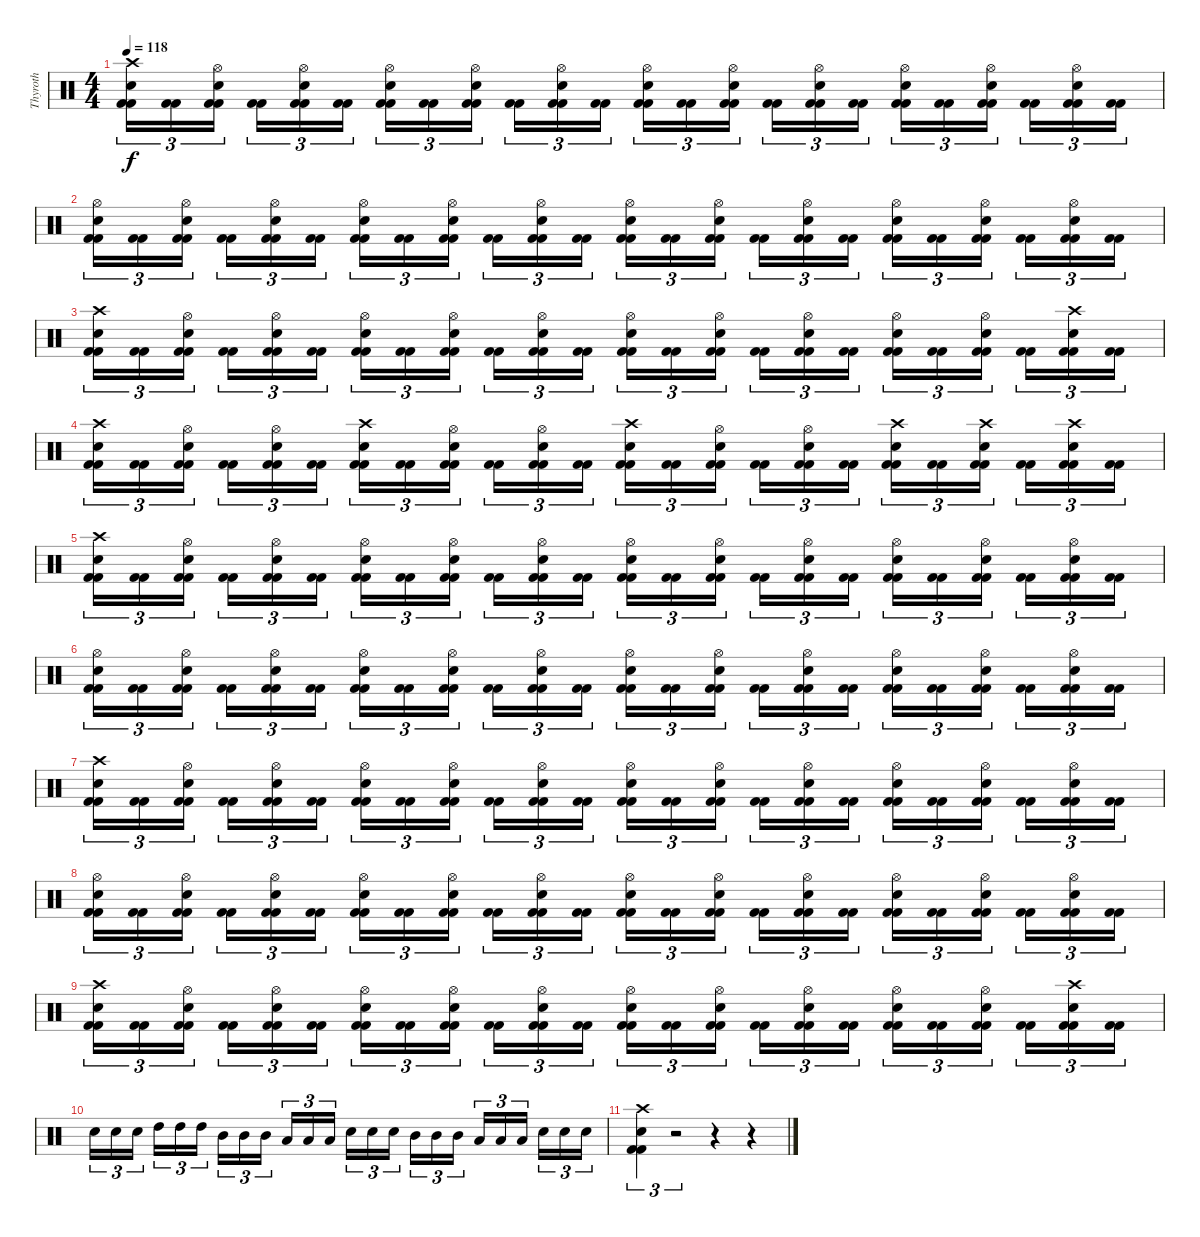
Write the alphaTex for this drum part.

\track ("Thyroth" "Thyroth") {instrument percussion}
\staff {score}
\articulation defaults
\ts (4 4)
\tempo 118
\clef neutral
\ks c
("Kick (hit) 2" "Kick (hit) 2" "Snare (hit) 2" "Crash high (hit)").16{tu (3 2) dy f} ("Kick (hit) 2" "Kick (hit) 2").16{tu (3 2)} ("Kick (hit) 2" "Kick (hit) 2" "Snare (hit) 2" "Hi-Hat (open)").16{tu (3 2)} ("Kick (hit) 2" "Kick (hit) 2").16{tu (3 2)} ("Kick (hit) 2" "Kick (hit) 2" "Snare (hit) 2" "Hi-Hat (open)").16{tu (3 2)} ("Kick (hit) 2" "Kick (hit) 2").16{tu (3 2)} ("Kick (hit) 2" "Kick (hit) 2" "Snare (hit) 2" "Hi-Hat (open)").16{tu (3 2)} ("Kick (hit) 2" "Kick (hit) 2").16{tu (3 2)} ("Kick (hit) 2" "Kick (hit) 2" "Snare (hit) 2" "Hi-Hat (open)").16{tu (3 2)} ("Kick (hit) 2" "Kick (hit) 2").16{tu (3 2)} ("Kick (hit) 2" "Kick (hit) 2" "Snare (hit) 2" "Hi-Hat (open)").16{tu (3 2)} ("Kick (hit) 2" "Kick (hit) 2").16{tu (3 2)} ("Kick (hit) 2" "Kick (hit) 2" "Snare (hit) 2" "Hi-Hat (open)").16{tu (3 2)} ("Kick (hit) 2" "Kick (hit) 2").16{tu (3 2)} ("Kick (hit) 2" "Kick (hit) 2" "Snare (hit) 2" "Hi-Hat (open)").16{tu (3 2)} ("Kick (hit) 2" "Kick (hit) 2").16{tu (3 2)} ("Kick (hit) 2" "Kick (hit) 2" "Snare (hit) 2" "Hi-Hat (open)").16{tu (3 2)} ("Kick (hit) 2" "Kick (hit) 2").16{tu (3 2)} ("Kick (hit) 2" "Kick (hit) 2" "Snare (hit) 2" "Hi-Hat (open)").16{tu (3 2)} ("Kick (hit) 2" "Kick (hit) 2").16{tu (3 2)} ("Kick (hit) 2" "Kick (hit) 2" "Snare (hit) 2" "Hi-Hat (open)").16{tu (3 2)} ("Kick (hit) 2" "Kick (hit) 2").16{tu (3 2)} ("Kick (hit) 2" "Kick (hit) 2" "Snare (hit) 2" "Hi-Hat (open)").16{tu (3 2)} ("Kick (hit) 2" "Kick (hit) 2").16{tu (3 2)} |
("Kick (hit) 2" "Kick (hit) 2" "Snare (hit) 2" "Hi-Hat (open)").16{tu (3 2)} ("Kick (hit) 2" "Kick (hit) 2").16{tu (3 2)} ("Kick (hit) 2" "Kick (hit) 2" "Snare (hit) 2" "Hi-Hat (open)").16{tu (3 2)} ("Kick (hit) 2" "Kick (hit) 2").16{tu (3 2)} ("Kick (hit) 2" "Kick (hit) 2" "Snare (hit) 2" "Hi-Hat (open)").16{tu (3 2)} ("Kick (hit) 2" "Kick (hit) 2").16{tu (3 2)} ("Kick (hit) 2" "Kick (hit) 2" "Snare (hit) 2" "Hi-Hat (open)").16{tu (3 2)} ("Kick (hit) 2" "Kick (hit) 2").16{tu (3 2)} ("Kick (hit) 2" "Kick (hit) 2" "Snare (hit) 2" "Hi-Hat (open)").16{tu (3 2)} ("Kick (hit) 2" "Kick (hit) 2").16{tu (3 2)} ("Kick (hit) 2" "Kick (hit) 2" "Snare (hit) 2" "Hi-Hat (open)").16{tu (3 2)} ("Kick (hit) 2" "Kick (hit) 2").16{tu (3 2)} ("Kick (hit) 2" "Kick (hit) 2" "Snare (hit) 2" "Hi-Hat (open)").16{tu (3 2)} ("Kick (hit) 2" "Kick (hit) 2").16{tu (3 2)} ("Kick (hit) 2" "Kick (hit) 2" "Snare (hit) 2" "Hi-Hat (open)").16{tu (3 2)} ("Kick (hit) 2" "Kick (hit) 2").16{tu (3 2)} ("Kick (hit) 2" "Kick (hit) 2" "Snare (hit) 2" "Hi-Hat (open)").16{tu (3 2)} ("Kick (hit) 2" "Kick (hit) 2").16{tu (3 2)} ("Kick (hit) 2" "Kick (hit) 2" "Snare (hit) 2" "Hi-Hat (open)").16{tu (3 2)} ("Kick (hit) 2" "Kick (hit) 2").16{tu (3 2)} ("Kick (hit) 2" "Kick (hit) 2" "Snare (hit) 2" "Hi-Hat (open)").16{tu (3 2)} ("Kick (hit) 2" "Kick (hit) 2").16{tu (3 2)} ("Kick (hit) 2" "Kick (hit) 2" "Snare (hit) 2" "Hi-Hat (open)").16{tu (3 2)} ("Kick (hit) 2" "Kick (hit) 2").16{tu (3 2)} |
("Kick (hit) 2" "Kick (hit) 2" "Snare (hit) 2" "Crash high (hit)").16{tu (3 2)} ("Kick (hit) 2" "Kick (hit) 2").16{tu (3 2)} ("Kick (hit) 2" "Kick (hit) 2" "Snare (hit) 2" "Hi-Hat (open)").16{tu (3 2)} ("Kick (hit) 2" "Kick (hit) 2").16{tu (3 2)} ("Kick (hit) 2" "Kick (hit) 2" "Snare (hit) 2" "Hi-Hat (open)").16{tu (3 2)} ("Kick (hit) 2" "Kick (hit) 2").16{tu (3 2)} ("Kick (hit) 2" "Kick (hit) 2" "Snare (hit) 2" "Hi-Hat (open)").16{tu (3 2)} ("Kick (hit) 2" "Kick (hit) 2").16{tu (3 2)} ("Kick (hit) 2" "Kick (hit) 2" "Snare (hit) 2" "Hi-Hat (open)").16{tu (3 2)} ("Kick (hit) 2" "Kick (hit) 2").16{tu (3 2)} ("Kick (hit) 2" "Kick (hit) 2" "Snare (hit) 2" "Hi-Hat (open)").16{tu (3 2)} ("Kick (hit) 2" "Kick (hit) 2").16{tu (3 2)} ("Kick (hit) 2" "Kick (hit) 2" "Snare (hit) 2" "Hi-Hat (open)").16{tu (3 2)} ("Kick (hit) 2" "Kick (hit) 2").16{tu (3 2)} ("Kick (hit) 2" "Kick (hit) 2" "Snare (hit) 2" "Hi-Hat (open)").16{tu (3 2)} ("Kick (hit) 2" "Kick (hit) 2").16{tu (3 2)} ("Kick (hit) 2" "Kick (hit) 2" "Snare (hit) 2" "Hi-Hat (open)").16{tu (3 2)} ("Kick (hit) 2" "Kick (hit) 2").16{tu (3 2)} ("Kick (hit) 2" "Kick (hit) 2" "Snare (hit) 2" "Hi-Hat (open)").16{tu (3 2)} ("Kick (hit) 2" "Kick (hit) 2").16{tu (3 2)} ("Kick (hit) 2" "Kick (hit) 2" "Snare (hit) 2" "Hi-Hat (open)").16{tu (3 2)} ("Kick (hit) 2" "Kick (hit) 2").16{tu (3 2)} ("Kick (hit) 2" "Kick (hit) 2" "Snare (hit) 2" "Crash high (hit)").16{tu (3 2)} ("Kick (hit) 2" "Kick (hit) 2").16{tu (3 2)} |
("Kick (hit) 2" "Kick (hit) 2" "Snare (hit) 2" "Crash high (hit)").16{tu (3 2)} ("Kick (hit) 2" "Kick (hit) 2").16{tu (3 2)} ("Kick (hit) 2" "Kick (hit) 2" "Snare (hit) 2" "Hi-Hat (open)").16{tu (3 2)} ("Kick (hit) 2" "Kick (hit) 2").16{tu (3 2)} ("Kick (hit) 2" "Kick (hit) 2" "Snare (hit) 2" "Hi-Hat (open)").16{tu (3 2)} ("Kick (hit) 2" "Kick (hit) 2").16{tu (3 2)} ("Kick (hit) 2" "Kick (hit) 2" "Snare (hit) 2" "Crash high (hit)").16{tu (3 2)} ("Kick (hit) 2" "Kick (hit) 2").16{tu (3 2)} ("Kick (hit) 2" "Kick (hit) 2" "Snare (hit) 2" "Hi-Hat (open)").16{tu (3 2)} ("Kick (hit) 2" "Kick (hit) 2").16{tu (3 2)} ("Kick (hit) 2" "Kick (hit) 2" "Snare (hit) 2" "Hi-Hat (open)").16{tu (3 2)} ("Kick (hit) 2" "Kick (hit) 2").16{tu (3 2)} ("Kick (hit) 2" "Kick (hit) 2" "Snare (hit) 2" "Crash high (hit)").16{tu (3 2)} ("Kick (hit) 2" "Kick (hit) 2").16{tu (3 2)} ("Kick (hit) 2" "Kick (hit) 2" "Snare (hit) 2" "Hi-Hat (open)").16{tu (3 2)} ("Kick (hit) 2" "Kick (hit) 2").16{tu (3 2)} ("Kick (hit) 2" "Kick (hit) 2" "Snare (hit) 2" "Hi-Hat (open)").16{tu (3 2)} ("Kick (hit) 2" "Kick (hit) 2").16{tu (3 2)} ("Kick (hit) 2" "Kick (hit) 2" "Snare (hit) 2" "Crash high (hit)").16{tu (3 2)} ("Kick (hit) 2" "Kick (hit) 2").16{tu (3 2)} ("Kick (hit) 2" "Kick (hit) 2" "Snare (hit) 2" "Crash high (hit)").16{tu (3 2)} ("Kick (hit) 2" "Kick (hit) 2").16{tu (3 2)} ("Kick (hit) 2" "Kick (hit) 2" "Snare (hit) 2" "Crash high (hit)").16{tu (3 2)} ("Kick (hit) 2" "Kick (hit) 2").16{tu (3 2)} |
("Kick (hit) 2" "Kick (hit) 2" "Snare (hit) 2" "Crash high (hit)").16{tu (3 2)} ("Kick (hit) 2" "Kick (hit) 2").16{tu (3 2)} ("Kick (hit) 2" "Kick (hit) 2" "Snare (hit) 2" "Hi-Hat (open)").16{tu (3 2)} ("Kick (hit) 2" "Kick (hit) 2").16{tu (3 2)} ("Kick (hit) 2" "Kick (hit) 2" "Snare (hit) 2" "Hi-Hat (open)").16{tu (3 2)} ("Kick (hit) 2" "Kick (hit) 2").16{tu (3 2)} ("Kick (hit) 2" "Kick (hit) 2" "Snare (hit) 2" "Hi-Hat (open)").16{tu (3 2)} ("Kick (hit) 2" "Kick (hit) 2").16{tu (3 2)} ("Kick (hit) 2" "Kick (hit) 2" "Snare (hit) 2" "Hi-Hat (open)").16{tu (3 2)} ("Kick (hit) 2" "Kick (hit) 2").16{tu (3 2)} ("Kick (hit) 2" "Kick (hit) 2" "Snare (hit) 2" "Hi-Hat (open)").16{tu (3 2)} ("Kick (hit) 2" "Kick (hit) 2").16{tu (3 2)} ("Kick (hit) 2" "Kick (hit) 2" "Snare (hit) 2" "Hi-Hat (open)").16{tu (3 2)} ("Kick (hit) 2" "Kick (hit) 2").16{tu (3 2)} ("Kick (hit) 2" "Kick (hit) 2" "Snare (hit) 2" "Hi-Hat (open)").16{tu (3 2)} ("Kick (hit) 2" "Kick (hit) 2").16{tu (3 2)} ("Kick (hit) 2" "Kick (hit) 2" "Snare (hit) 2" "Hi-Hat (open)").16{tu (3 2)} ("Kick (hit) 2" "Kick (hit) 2").16{tu (3 2)} ("Kick (hit) 2" "Kick (hit) 2" "Snare (hit) 2" "Hi-Hat (open)").16{tu (3 2)} ("Kick (hit) 2" "Kick (hit) 2").16{tu (3 2)} ("Kick (hit) 2" "Kick (hit) 2" "Snare (hit) 2" "Hi-Hat (open)").16{tu (3 2)} ("Kick (hit) 2" "Kick (hit) 2").16{tu (3 2)} ("Kick (hit) 2" "Kick (hit) 2" "Snare (hit) 2" "Hi-Hat (open)").16{tu (3 2)} ("Kick (hit) 2" "Kick (hit) 2").16{tu (3 2)} |
("Kick (hit) 2" "Kick (hit) 2" "Snare (hit) 2" "Hi-Hat (open)").16{tu (3 2)} ("Kick (hit) 2" "Kick (hit) 2").16{tu (3 2)} ("Kick (hit) 2" "Kick (hit) 2" "Snare (hit) 2" "Hi-Hat (open)").16{tu (3 2)} ("Kick (hit) 2" "Kick (hit) 2").16{tu (3 2)} ("Kick (hit) 2" "Kick (hit) 2" "Snare (hit) 2" "Hi-Hat (open)").16{tu (3 2)} ("Kick (hit) 2" "Kick (hit) 2").16{tu (3 2)} ("Kick (hit) 2" "Kick (hit) 2" "Snare (hit) 2" "Hi-Hat (open)").16{tu (3 2)} ("Kick (hit) 2" "Kick (hit) 2").16{tu (3 2)} ("Kick (hit) 2" "Kick (hit) 2" "Snare (hit) 2" "Hi-Hat (open)").16{tu (3 2)} ("Kick (hit) 2" "Kick (hit) 2").16{tu (3 2)} ("Kick (hit) 2" "Kick (hit) 2" "Snare (hit) 2" "Hi-Hat (open)").16{tu (3 2)} ("Kick (hit) 2" "Kick (hit) 2").16{tu (3 2)} ("Kick (hit) 2" "Kick (hit) 2" "Snare (hit) 2" "Hi-Hat (open)").16{tu (3 2)} ("Kick (hit) 2" "Kick (hit) 2").16{tu (3 2)} ("Kick (hit) 2" "Kick (hit) 2" "Snare (hit) 2" "Hi-Hat (open)").16{tu (3 2)} ("Kick (hit) 2" "Kick (hit) 2").16{tu (3 2)} ("Kick (hit) 2" "Kick (hit) 2" "Snare (hit) 2" "Hi-Hat (open)").16{tu (3 2)} ("Kick (hit) 2" "Kick (hit) 2").16{tu (3 2)} ("Kick (hit) 2" "Kick (hit) 2" "Snare (hit) 2" "Hi-Hat (open)").16{tu (3 2)} ("Kick (hit) 2" "Kick (hit) 2").16{tu (3 2)} ("Kick (hit) 2" "Kick (hit) 2" "Snare (hit) 2" "Hi-Hat (open)").16{tu (3 2)} ("Kick (hit) 2" "Kick (hit) 2").16{tu (3 2)} ("Kick (hit) 2" "Kick (hit) 2" "Snare (hit) 2" "Hi-Hat (open)").16{tu (3 2)} ("Kick (hit) 2" "Kick (hit) 2").16{tu (3 2)} |
("Kick (hit) 2" "Kick (hit) 2" "Snare (hit) 2" "Crash high (hit)").16{tu (3 2)} ("Kick (hit) 2" "Kick (hit) 2").16{tu (3 2)} ("Kick (hit) 2" "Kick (hit) 2" "Snare (hit) 2" "Hi-Hat (open)").16{tu (3 2)} ("Kick (hit) 2" "Kick (hit) 2").16{tu (3 2)} ("Kick (hit) 2" "Kick (hit) 2" "Snare (hit) 2" "Hi-Hat (open)").16{tu (3 2)} ("Kick (hit) 2" "Kick (hit) 2").16{tu (3 2)} ("Kick (hit) 2" "Kick (hit) 2" "Snare (hit) 2" "Hi-Hat (open)").16{tu (3 2)} ("Kick (hit) 2" "Kick (hit) 2").16{tu (3 2)} ("Kick (hit) 2" "Kick (hit) 2" "Snare (hit) 2" "Hi-Hat (open)").16{tu (3 2)} ("Kick (hit) 2" "Kick (hit) 2").16{tu (3 2)} ("Kick (hit) 2" "Kick (hit) 2" "Snare (hit) 2" "Hi-Hat (open)").16{tu (3 2)} ("Kick (hit) 2" "Kick (hit) 2").16{tu (3 2)} ("Kick (hit) 2" "Kick (hit) 2" "Snare (hit) 2" "Hi-Hat (open)").16{tu (3 2)} ("Kick (hit) 2" "Kick (hit) 2").16{tu (3 2)} ("Kick (hit) 2" "Kick (hit) 2" "Snare (hit) 2" "Hi-Hat (open)").16{tu (3 2)} ("Kick (hit) 2" "Kick (hit) 2").16{tu (3 2)} ("Kick (hit) 2" "Kick (hit) 2" "Snare (hit) 2" "Hi-Hat (open)").16{tu (3 2)} ("Kick (hit) 2" "Kick (hit) 2").16{tu (3 2)} ("Kick (hit) 2" "Kick (hit) 2" "Snare (hit) 2" "Hi-Hat (open)").16{tu (3 2)} ("Kick (hit) 2" "Kick (hit) 2").16{tu (3 2)} ("Kick (hit) 2" "Kick (hit) 2" "Snare (hit) 2" "Hi-Hat (open)").16{tu (3 2)} ("Kick (hit) 2" "Kick (hit) 2").16{tu (3 2)} ("Kick (hit) 2" "Kick (hit) 2" "Snare (hit) 2" "Hi-Hat (open)").16{tu (3 2)} ("Kick (hit) 2" "Kick (hit) 2").16{tu (3 2)} |
("Kick (hit) 2" "Kick (hit) 2" "Snare (hit) 2" "Hi-Hat (open)").16{tu (3 2)} ("Kick (hit) 2" "Kick (hit) 2").16{tu (3 2)} ("Kick (hit) 2" "Kick (hit) 2" "Snare (hit) 2" "Hi-Hat (open)").16{tu (3 2)} ("Kick (hit) 2" "Kick (hit) 2").16{tu (3 2)} ("Kick (hit) 2" "Kick (hit) 2" "Snare (hit) 2" "Hi-Hat (open)").16{tu (3 2)} ("Kick (hit) 2" "Kick (hit) 2").16{tu (3 2)} ("Kick (hit) 2" "Kick (hit) 2" "Snare (hit) 2" "Hi-Hat (open)").16{tu (3 2)} ("Kick (hit) 2" "Kick (hit) 2").16{tu (3 2)} ("Kick (hit) 2" "Kick (hit) 2" "Snare (hit) 2" "Hi-Hat (open)").16{tu (3 2)} ("Kick (hit) 2" "Kick (hit) 2").16{tu (3 2)} ("Kick (hit) 2" "Kick (hit) 2" "Snare (hit) 2" "Hi-Hat (open)").16{tu (3 2)} ("Kick (hit) 2" "Kick (hit) 2").16{tu (3 2)} ("Kick (hit) 2" "Kick (hit) 2" "Snare (hit) 2" "Hi-Hat (open)").16{tu (3 2)} ("Kick (hit) 2" "Kick (hit) 2").16{tu (3 2)} ("Kick (hit) 2" "Kick (hit) 2" "Snare (hit) 2" "Hi-Hat (open)").16{tu (3 2)} ("Kick (hit) 2" "Kick (hit) 2").16{tu (3 2)} ("Kick (hit) 2" "Kick (hit) 2" "Snare (hit) 2" "Hi-Hat (open)").16{tu (3 2)} ("Kick (hit) 2" "Kick (hit) 2").16{tu (3 2)} ("Kick (hit) 2" "Kick (hit) 2" "Snare (hit) 2" "Hi-Hat (open)").16{tu (3 2)} ("Kick (hit) 2" "Kick (hit) 2").16{tu (3 2)} ("Kick (hit) 2" "Kick (hit) 2" "Snare (hit) 2" "Hi-Hat (open)").16{tu (3 2)} ("Kick (hit) 2" "Kick (hit) 2").16{tu (3 2)} ("Kick (hit) 2" "Kick (hit) 2" "Snare (hit) 2" "Hi-Hat (open)").16{tu (3 2)} ("Kick (hit) 2" "Kick (hit) 2").16{tu (3 2)} |
("Kick (hit) 2" "Kick (hit) 2" "Snare (hit) 2" "Crash high (hit)").16{tu (3 2)} ("Kick (hit) 2" "Kick (hit) 2").16{tu (3 2)} ("Kick (hit) 2" "Kick (hit) 2" "Snare (hit) 2" "Hi-Hat (open)").16{tu (3 2)} ("Kick (hit) 2" "Kick (hit) 2").16{tu (3 2)} ("Kick (hit) 2" "Kick (hit) 2" "Snare (hit) 2" "Hi-Hat (open)").16{tu (3 2)} ("Kick (hit) 2" "Kick (hit) 2").16{tu (3 2)} ("Kick (hit) 2" "Kick (hit) 2" "Snare (hit) 2" "Hi-Hat (open)").16{tu (3 2)} ("Kick (hit) 2" "Kick (hit) 2").16{tu (3 2)} ("Kick (hit) 2" "Kick (hit) 2" "Snare (hit) 2" "Hi-Hat (open)").16{tu (3 2)} ("Kick (hit) 2" "Kick (hit) 2").16{tu (3 2)} ("Kick (hit) 2" "Kick (hit) 2" "Snare (hit) 2" "Hi-Hat (open)").16{tu (3 2)} ("Kick (hit) 2" "Kick (hit) 2").16{tu (3 2)} ("Kick (hit) 2" "Kick (hit) 2" "Snare (hit) 2" "Hi-Hat (open)").16{tu (3 2)} ("Kick (hit) 2" "Kick (hit) 2").16{tu (3 2)} ("Kick (hit) 2" "Kick (hit) 2" "Snare (hit) 2" "Hi-Hat (open)").16{tu (3 2)} ("Kick (hit) 2" "Kick (hit) 2").16{tu (3 2)} ("Kick (hit) 2" "Kick (hit) 2" "Snare (hit) 2" "Hi-Hat (open)").16{tu (3 2)} ("Kick (hit) 2" "Kick (hit) 2").16{tu (3 2)} ("Kick (hit) 2" "Kick (hit) 2" "Snare (hit) 2" "Hi-Hat (open)").16{tu (3 2)} ("Kick (hit) 2" "Kick (hit) 2").16{tu (3 2)} ("Kick (hit) 2" "Kick (hit) 2" "Snare (hit) 2" "Hi-Hat (open)").16{tu (3 2)} ("Kick (hit) 2" "Kick (hit) 2").16{tu (3 2)} ("Kick (hit) 2" "Kick (hit) 2" "Snare (hit) 2" "Crash high (hit)").16{tu (3 2)} ("Kick (hit) 2" "Kick (hit) 2").16{tu (3 2)} |
"Snare (hit) 2".16{tu (3 2)} "Snare (hit) 2".16{tu (3 2)} "Snare (hit) 2".16{tu (3 2)} "High Tom (hit)".16{tu (3 2)} "High Tom (hit)".16{tu (3 2)} "High Tom (hit)".16{tu (3 2)} "Mid Tom (hit)".16{tu (3 2)} "Mid Tom (hit)".16{tu (3 2)} "Mid Tom (hit)".16{tu (3 2)} "Low Tom (hit)".16{tu (3 2)} "Low Tom (hit)".16{tu (3 2)} "Low Tom (hit)".16{tu (3 2)} "Snare (hit) 2".16{tu (3 2)} "Snare (hit) 2".16{tu (3 2)} "Snare (hit) 2".16{tu (3 2)} "Mid Tom (hit)".16{tu (3 2)} "Mid Tom (hit)".16{tu (3 2)} "Mid Tom (hit)".16{tu (3 2)} "Low Tom (hit)".16{tu (3 2)} "Low Tom (hit)".16{tu (3 2)} "Low Tom (hit)".16{tu (3 2)} "Snare (hit) 2".16{tu (3 2)} "Snare (hit) 2".16{tu (3 2)} "Snare (hit) 2".16{tu (3 2)} |
("Kick (hit) 2" "Kick (hit) 2" "Snare (hit) 2" "Crash high (hit)").4{tu (3 2)} r.2{tu (3 2)} r.4 r.4
